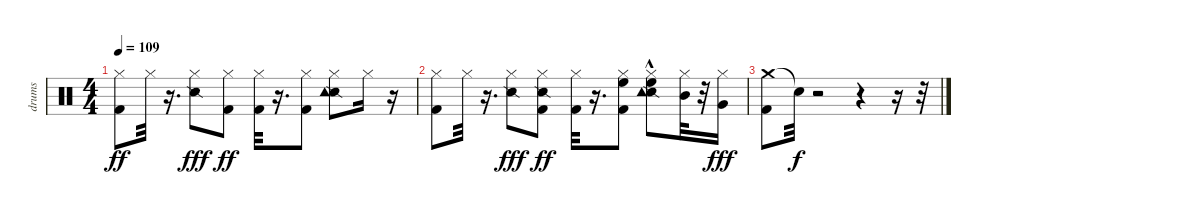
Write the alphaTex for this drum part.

\track ("drums" "drums") {instrument percussion}
\staff {score}
\articulation defaults
\ts (4 4)
\tempo 109
\clef neutral
\ks c
("Hi-Hat (closed)" "Kick (hit) 2").8{dy ff} "Hi-Hat (closed)".32 r.16{d} ("Snare (side stick) 2" "Hi-Hat (closed)").8{dy fff} ("Kick (hit) 2" "Hi-Hat (closed)").8{dy ff} ("Hi-Hat (closed)" "Kick (hit) 2").32 r.16{d} ("Hi-Hat (closed)" "Kick (hit) 2").8 ("Hi-Hat (closed)" "Snare (side stick) 2" "Tambourine (hit)").8 "Hi-Hat (closed)".16 r.16 |
("Hi-Hat (closed)" "Kick (hit) 2").8 "Hi-Hat (closed)".32 r.16{d} ("Hi-Hat (closed)" "Snare (side stick) 2").8{dy fff} ("Snare (side stick) 2" "Hi-Hat (closed)" "Kick (hit) 2").8{dy ff} ("Hi-Hat (closed)" "Kick (hit) 2").32 r.16{d} ("High Floor Tom (hit)" "Hi-Hat (closed)" "Kick (hit) 2").8 ("High Floor Tom (hit)" "Snare (side stick) 2" "Hi-Hat (closed)" "Tambourine (hit)"{hac}).8 ("Mid Tom (hit)" "Hi-Hat (closed)").32 r.32 ("Hi-Hat (closed)" "Very Low Tom (hit)").16{dy fff} |
("Crash medium (hit)" "Kick (hit) 2").8 "Snare (hit)"{t}.32{dy f} r.2 r.4 r.16 r.32
